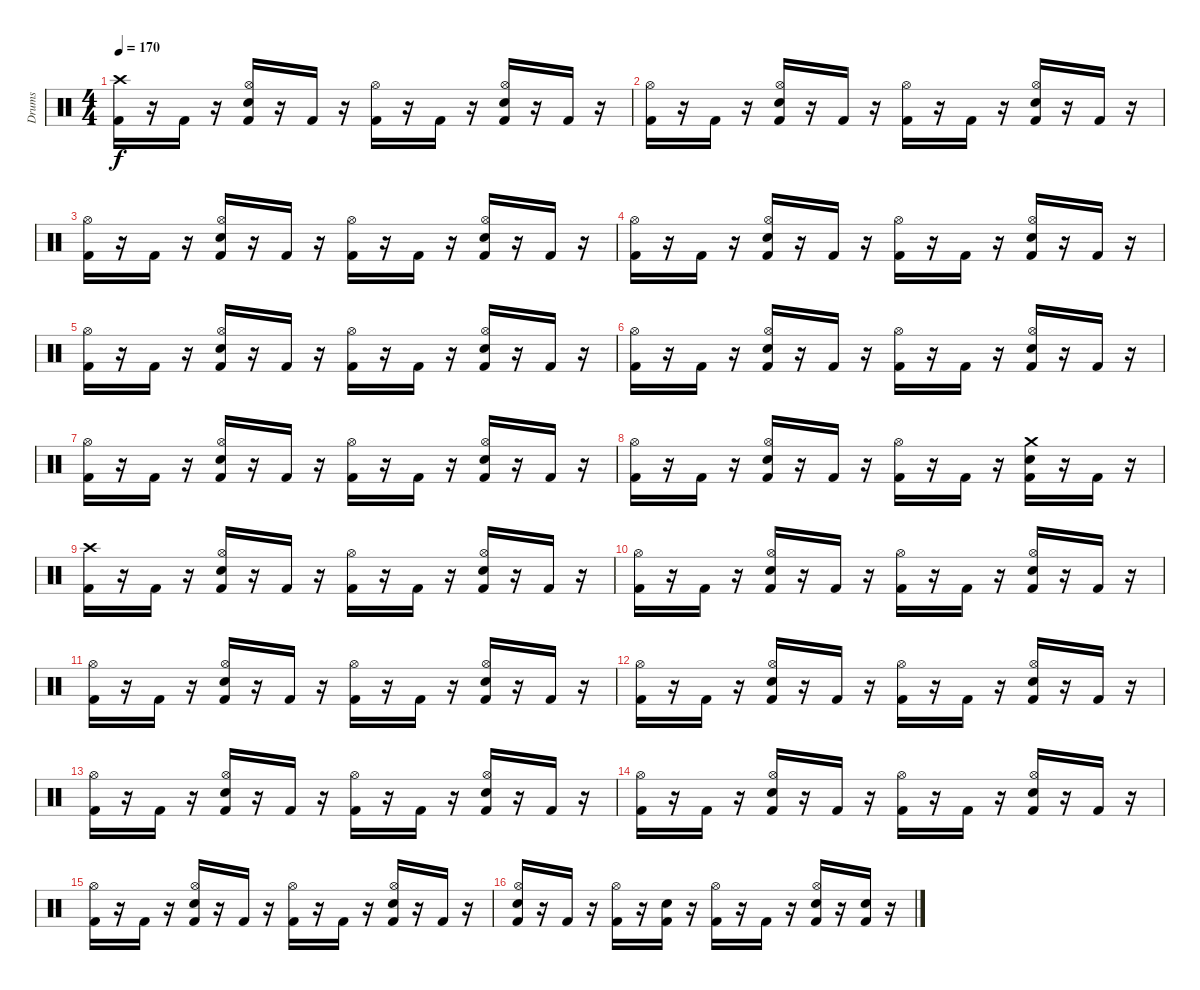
\track ("Drums" "Drums") {instrument percussion}
\staff {score}
\articulation defaults
\ts (4 4)
\tempo 170
\clef neutral
\ks c
("Crash high (hit)" "Kick (hit) 2").16{dy f} r.16 "Kick (hit) 2".16 r.16 ("Hi-Hat (open)" "Snare (hit) 2" "Kick (hit) 2").16 r.16 "Kick (hit) 2".16 r.16 ("Hi-Hat (open)" "Kick (hit) 2").16 r.16 "Kick (hit) 2".16 r.16 ("Hi-Hat (open)" "Snare (hit) 2" "Kick (hit) 2").16 r.16 "Kick (hit) 2".16 r.16 |
("Hi-Hat (open)" "Kick (hit) 2").16 r.16 "Kick (hit) 2".16 r.16 ("Hi-Hat (open)" "Snare (hit) 2" "Kick (hit) 2").16 r.16 "Kick (hit) 2".16 r.16 ("Hi-Hat (open)" "Kick (hit) 2").16 r.16 "Kick (hit) 2".16 r.16 ("Hi-Hat (open)" "Snare (hit) 2" "Kick (hit) 2").16 r.16 "Kick (hit) 2".16 r.16 |
("Hi-Hat (open)" "Kick (hit) 2").16 r.16 "Kick (hit) 2".16 r.16 ("Hi-Hat (open)" "Snare (hit) 2" "Kick (hit) 2").16 r.16 "Kick (hit) 2".16 r.16 ("Hi-Hat (open)" "Kick (hit) 2").16 r.16 "Kick (hit) 2".16 r.16 ("Hi-Hat (open)" "Snare (hit) 2" "Kick (hit) 2").16 r.16 "Kick (hit) 2".16 r.16 |
("Hi-Hat (open)" "Kick (hit) 2").16 r.16 "Kick (hit) 2".16 r.16 ("Hi-Hat (open)" "Snare (hit) 2" "Kick (hit) 2").16 r.16 "Kick (hit) 2".16 r.16 ("Hi-Hat (open)" "Kick (hit) 2").16 r.16 "Kick (hit) 2".16 r.16 ("Hi-Hat (open)" "Snare (hit) 2" "Kick (hit) 2").16 r.16 "Kick (hit) 2".16 r.16 |
("Hi-Hat (open)" "Kick (hit) 2").16 r.16 "Kick (hit) 2".16 r.16 ("Hi-Hat (open)" "Snare (hit) 2" "Kick (hit) 2").16 r.16 "Kick (hit) 2".16 r.16 ("Hi-Hat (open)" "Kick (hit) 2").16 r.16 "Kick (hit) 2".16 r.16 ("Hi-Hat (open)" "Snare (hit) 2" "Kick (hit) 2").16 r.16 "Kick (hit) 2".16 r.16 |
("Hi-Hat (open)" "Kick (hit) 2").16 r.16 "Kick (hit) 2".16 r.16 ("Hi-Hat (open)" "Snare (hit) 2" "Kick (hit) 2").16 r.16 "Kick (hit) 2".16 r.16 ("Hi-Hat (open)" "Kick (hit) 2").16 r.16 "Kick (hit) 2".16 r.16 ("Hi-Hat (open)" "Snare (hit) 2" "Kick (hit) 2").16 r.16 "Kick (hit) 2".16 r.16 |
("Hi-Hat (open)" "Kick (hit) 2").16 r.16 "Kick (hit) 2".16 r.16 ("Hi-Hat (open)" "Snare (hit) 2" "Kick (hit) 2").16 r.16 "Kick (hit) 2".16 r.16 ("Hi-Hat (open)" "Kick (hit) 2").16 r.16 "Kick (hit) 2".16 r.16 ("Hi-Hat (open)" "Snare (hit) 2" "Kick (hit) 2").16 r.16 "Kick (hit) 2".16 r.16 |
("Hi-Hat (open)" "Kick (hit) 2").16 r.16 "Kick (hit) 2".16 r.16 ("Hi-Hat (open)" "Snare (hit) 2" "Kick (hit) 2").16 r.16 "Kick (hit) 2".16 r.16 ("Hi-Hat (open)" "Kick (hit) 2").16 r.16 "Kick (hit) 2".16 r.16 ("Crash medium (hit)" "Snare (hit) 2" "Kick (hit) 2").16 r.16 "Kick (hit) 2".16 r.16 |
("Crash high (hit)" "Kick (hit) 2").16 r.16 "Kick (hit) 2".16 r.16 ("Hi-Hat (open)" "Snare (hit) 2" "Kick (hit) 2").16 r.16 "Kick (hit) 2".16 r.16 ("Hi-Hat (open)" "Kick (hit) 2").16 r.16 "Kick (hit) 2".16 r.16 ("Hi-Hat (open)" "Snare (hit) 2" "Kick (hit) 2").16 r.16 "Kick (hit) 2".16 r.16 |
("Hi-Hat (open)" "Kick (hit) 2").16 r.16 "Kick (hit) 2".16 r.16 ("Hi-Hat (open)" "Snare (hit) 2" "Kick (hit) 2").16 r.16 "Kick (hit) 2".16 r.16 ("Hi-Hat (open)" "Kick (hit) 2").16 r.16 "Kick (hit) 2".16 r.16 ("Hi-Hat (open)" "Snare (hit) 2" "Kick (hit) 2").16 r.16 "Kick (hit) 2".16 r.16 |
("Hi-Hat (open)" "Kick (hit) 2").16 r.16 "Kick (hit) 2".16 r.16 ("Hi-Hat (open)" "Snare (hit) 2" "Kick (hit) 2").16 r.16 "Kick (hit) 2".16 r.16 ("Hi-Hat (open)" "Kick (hit) 2").16 r.16 "Kick (hit) 2".16 r.16 ("Hi-Hat (open)" "Snare (hit) 2" "Kick (hit) 2").16 r.16 "Kick (hit) 2".16 r.16 |
("Hi-Hat (open)" "Kick (hit) 2").16 r.16 "Kick (hit) 2".16 r.16 ("Hi-Hat (open)" "Snare (hit) 2" "Kick (hit) 2").16 r.16 "Kick (hit) 2".16 r.16 ("Hi-Hat (open)" "Kick (hit) 2").16 r.16 "Kick (hit) 2".16 r.16 ("Hi-Hat (open)" "Snare (hit) 2" "Kick (hit) 2").16 r.16 "Kick (hit) 2".16 r.16 |
("Hi-Hat (open)" "Kick (hit) 2").16 r.16 "Kick (hit) 2".16 r.16 ("Hi-Hat (open)" "Snare (hit) 2" "Kick (hit) 2").16 r.16 "Kick (hit) 2".16 r.16 ("Hi-Hat (open)" "Kick (hit) 2").16 r.16 "Kick (hit) 2".16 r.16 ("Hi-Hat (open)" "Snare (hit) 2" "Kick (hit) 2").16 r.16 "Kick (hit) 2".16 r.16 |
("Hi-Hat (open)" "Kick (hit) 2").16 r.16 "Kick (hit) 2".16 r.16 ("Hi-Hat (open)" "Snare (hit) 2" "Kick (hit) 2").16 r.16 "Kick (hit) 2".16 r.16 ("Hi-Hat (open)" "Kick (hit) 2").16 r.16 "Kick (hit) 2".16 r.16 ("Hi-Hat (open)" "Snare (hit) 2" "Kick (hit) 2").16 r.16 "Kick (hit) 2".16 r.16 |
("Hi-Hat (open)" "Kick (hit) 2").16 r.16 "Kick (hit) 2".16 r.16 ("Hi-Hat (open)" "Snare (hit) 2" "Kick (hit) 2").16 r.16 "Kick (hit) 2".16 r.16 ("Hi-Hat (open)" "Kick (hit) 2").16 r.16 "Kick (hit) 2".16 r.16 ("Hi-Hat (open)" "Snare (hit) 2" "Kick (hit) 2").16 r.16 "Kick (hit) 2".16 r.16 |
("Hi-Hat (open)" "Snare (hit) 2" "Kick (hit) 2").16 r.16 "Kick (hit) 2".16 r.16 ("Hi-Hat (open)" "Kick (hit) 2").16 r.16 ("Snare (hit) 2" "Kick (hit) 2").16 r.16 ("Hi-Hat (open)" "Kick (hit) 2").16 r.16 "Kick (hit) 2".16 r.16 ("Hi-Hat (open)" "Snare (hit) 2" "Kick (hit) 2").16 r.16 ("Snare (hit) 2" "Kick (hit) 2").16 r.16
